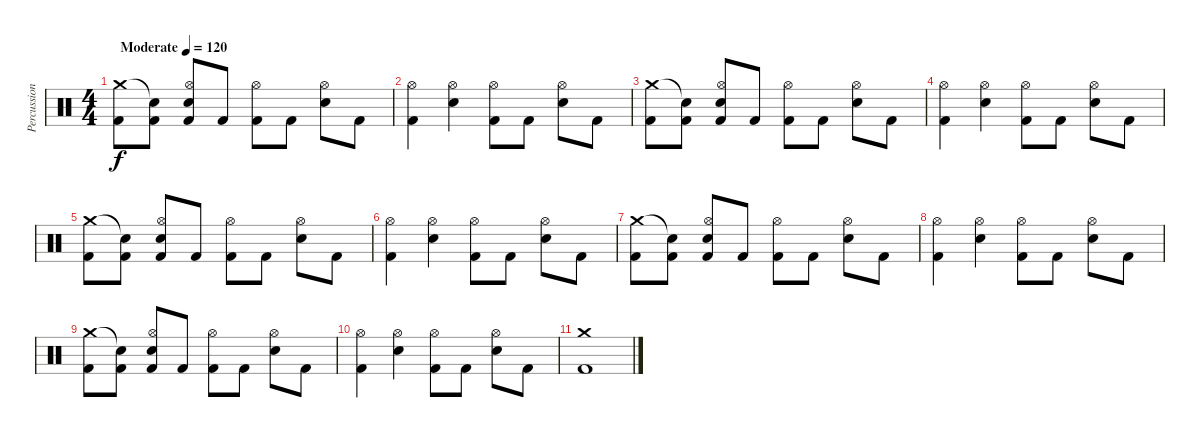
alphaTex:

\track ("Percussion" "Percussion") {instrument percussion}
\staff {score}
\articulation defaults
\ts (4 4)
\tempo (120 "Moderate")
\clef neutral
\ks c
("Crash medium (hit)" "Kick (hit) 2").8{dy f} ("Snare (hit)"{t} "Kick (hit) 2").8 ("Hi-Hat (open)" "Electric Snare (hit)" "Kick (hit) 2").8 "Kick (hit) 2".8 ("Hi-Hat (open)" "Kick (hit) 2").8 "Kick (hit) 2".8 ("Hi-Hat (open)" "Electric Snare (hit)").8 "Kick (hit) 2".8 |
("Hi-Hat (open)" "Kick (hit) 2").4 ("Hi-Hat (open)" "Electric Snare (hit)").4 ("Hi-Hat (open)" "Kick (hit) 2").8 "Kick (hit) 2".8 ("Hi-Hat (open)" "Electric Snare (hit)").8 "Kick (hit) 2".8 |
("Crash medium (hit)" "Kick (hit) 2").8 ("Snare (hit)"{t} "Kick (hit) 2").8 ("Hi-Hat (open)" "Electric Snare (hit)" "Kick (hit) 2").8 "Kick (hit) 2".8 ("Hi-Hat (open)" "Kick (hit) 2").8 "Kick (hit) 2".8 ("Hi-Hat (open)" "Electric Snare (hit)").8 "Kick (hit) 2".8 |
("Hi-Hat (open)" "Kick (hit) 2").4 ("Hi-Hat (open)" "Electric Snare (hit)").4 ("Hi-Hat (open)" "Kick (hit) 2").8 "Kick (hit) 2".8 ("Hi-Hat (open)" "Electric Snare (hit)").8 "Kick (hit) 2".8 |
("Crash medium (hit)" "Kick (hit) 2").8 ("Snare (hit)"{t} "Kick (hit) 2").8 ("Hi-Hat (open)" "Electric Snare (hit)" "Kick (hit) 2").8 "Kick (hit) 2".8 ("Hi-Hat (open)" "Kick (hit) 2").8 "Kick (hit) 2".8 ("Hi-Hat (open)" "Electric Snare (hit)").8 "Kick (hit) 2".8 |
("Hi-Hat (open)" "Kick (hit) 2").4 ("Hi-Hat (open)" "Electric Snare (hit)").4 ("Hi-Hat (open)" "Kick (hit) 2").8 "Kick (hit) 2".8 ("Hi-Hat (open)" "Electric Snare (hit)").8 "Kick (hit) 2".8 |
("Crash medium (hit)" "Kick (hit) 2").8 ("Snare (hit)"{t} "Kick (hit) 2").8 ("Hi-Hat (open)" "Electric Snare (hit)" "Kick (hit) 2").8 "Kick (hit) 2".8 ("Hi-Hat (open)" "Kick (hit) 2").8 "Kick (hit) 2".8 ("Hi-Hat (open)" "Electric Snare (hit)").8 "Kick (hit) 2".8 |
("Hi-Hat (open)" "Kick (hit) 2").4 ("Hi-Hat (open)" "Electric Snare (hit)").4 ("Hi-Hat (open)" "Kick (hit) 2").8 "Kick (hit) 2".8 ("Hi-Hat (open)" "Electric Snare (hit)").8 "Kick (hit) 2".8 |
("Crash medium (hit)" "Kick (hit) 2").8 ("Snare (hit)"{t} "Kick (hit) 2").8 ("Hi-Hat (open)" "Electric Snare (hit)" "Kick (hit) 2").8 "Kick (hit) 2".8 ("Hi-Hat (open)" "Kick (hit) 2").8 "Kick (hit) 2".8 ("Hi-Hat (open)" "Electric Snare (hit)").8 "Kick (hit) 2".8 |
("Hi-Hat (open)" "Kick (hit) 2").4 ("Hi-Hat (open)" "Electric Snare (hit)").4 ("Hi-Hat (open)" "Kick (hit) 2").8 "Kick (hit) 2".8 ("Hi-Hat (open)" "Electric Snare (hit)").8 "Kick (hit) 2".8 |
("Crash medium (hit)" "Kick (hit) 2").1
